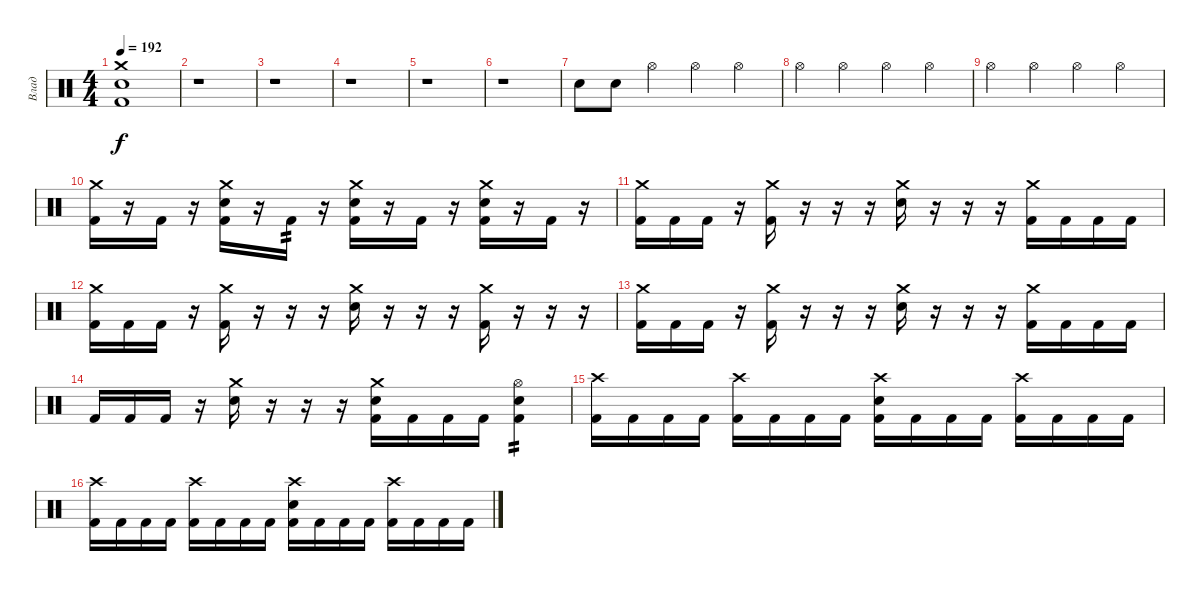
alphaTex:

\track ("Влад" "Влад") {instrument percussion}
\staff {score}
\articulation defaults
\ts (4 4)
\tempo 192
\clef neutral
\ks c
("Crash medium (hit)" "Snare (hit) 2" "Kick (hit) 2").1{dy f} |
r.1 |
r.1 |
r.1 |
r.1 |
r.1 |
"Snare (hit) 2".8 "Snare (hit) 2".8 "Hi-Hat (open)".4 "Hi-Hat (open)".4 "Hi-Hat (open)".4 |
"Hi-Hat (open)".4 "Hi-Hat (open)".4 "Hi-Hat (open)".4 "Hi-Hat (open)".4 |
"Hi-Hat (open)".4 "Hi-Hat (open)".4 "Hi-Hat (open)".4 "Hi-Hat (open)".4 |
("Crash medium (hit)" "Kick (hit) 2").16 r.16 "Kick (hit) 2".16 r.16 ("Crash medium (hit)" "Kick (hit) 2" "Snare (hit) 2").16 r.16 "Kick (hit) 2".16{tp 2} r.16 ("Crash medium (hit)" "Kick (hit) 2" "Snare (hit) 2").16 r.16 "Kick (hit) 2".16 r.16 ("Crash medium (hit)" "Kick (hit) 2" "Snare (hit) 2").16 r.16 "Kick (hit) 2".16 r.16 |
("Crash medium (hit)" "Kick (hit) 2").16 "Kick (hit) 2".16 "Kick (hit) 2".16 r.16 ("Crash medium (hit)" "Kick (hit) 2").16 r.16 r.16 r.16 ("Crash medium (hit)" "Snare (hit) 2").16 r.16 r.16 r.16 ("Crash medium (hit)" "Kick (hit) 2").16 "Kick (hit) 2".16 "Kick (hit) 2".16 "Kick (hit) 2".16 |
("Crash medium (hit)" "Kick (hit) 2").16 "Kick (hit) 2".16 "Kick (hit) 2".16 r.16 ("Crash medium (hit)" "Kick (hit) 2").16 r.16 r.16 r.16 ("Crash medium (hit)" "Snare (hit) 2").16 r.16 r.16 r.16 ("Crash medium (hit)" "Kick (hit) 2").16 r.16 r.16 r.16 |
("Crash medium (hit)" "Kick (hit) 2").16 "Kick (hit) 2".16 "Kick (hit) 2".16 r.16 ("Crash medium (hit)" "Kick (hit) 2").16 r.16 r.16 r.16 ("Crash medium (hit)" "Snare (hit) 2").16 r.16 r.16 r.16 ("Crash medium (hit)" "Kick (hit) 2").16 "Kick (hit) 2".16 "Kick (hit) 2".16 "Kick (hit) 2".16 |
"Kick (hit) 2".16 "Kick (hit) 2".16 "Kick (hit) 2".16 r.16 ("Crash medium (hit)" "Snare (hit) 2").16 r.16 r.16 r.16 ("Crash medium (hit)" "Snare (hit) 2" "Kick (hit) 2").16 "Kick (hit) 2".16 "Kick (hit) 2".16 "Kick (hit) 2".16 ("Hi-Hat (open)" "Snare (hit) 2" "Kick (hit) 2").4{tp 2} |
("Crash high (hit)" "Kick (hit) 2").16 "Kick (hit) 2".16 "Kick (hit) 2".16 "Kick (hit) 2".16 ("Crash high (hit)" "Kick (hit) 2").16 "Kick (hit) 2".16 "Kick (hit) 2".16 "Kick (hit) 2".16 ("Crash high (hit)" "Snare (hit) 2" "Kick (hit) 2").16 "Kick (hit) 2".16 "Kick (hit) 2".16 "Kick (hit) 2".16 ("Crash high (hit)" "Kick (hit) 2").16 "Kick (hit) 2".16 "Kick (hit) 2".16 "Kick (hit) 2".16 |
("Crash high (hit)" "Kick (hit) 2").16 "Kick (hit) 2".16 "Kick (hit) 2".16 "Kick (hit) 2".16 ("Crash high (hit)" "Kick (hit) 2").16 "Kick (hit) 2".16 "Kick (hit) 2".16 "Kick (hit) 2".16 ("Crash high (hit)" "Snare (hit) 2" "Kick (hit) 2").16 "Kick (hit) 2".16 "Kick (hit) 2".16 "Kick (hit) 2".16 ("Crash high (hit)" "Kick (hit) 2").16 "Kick (hit) 2".16 "Kick (hit) 2".16 "Kick (hit) 2".16
